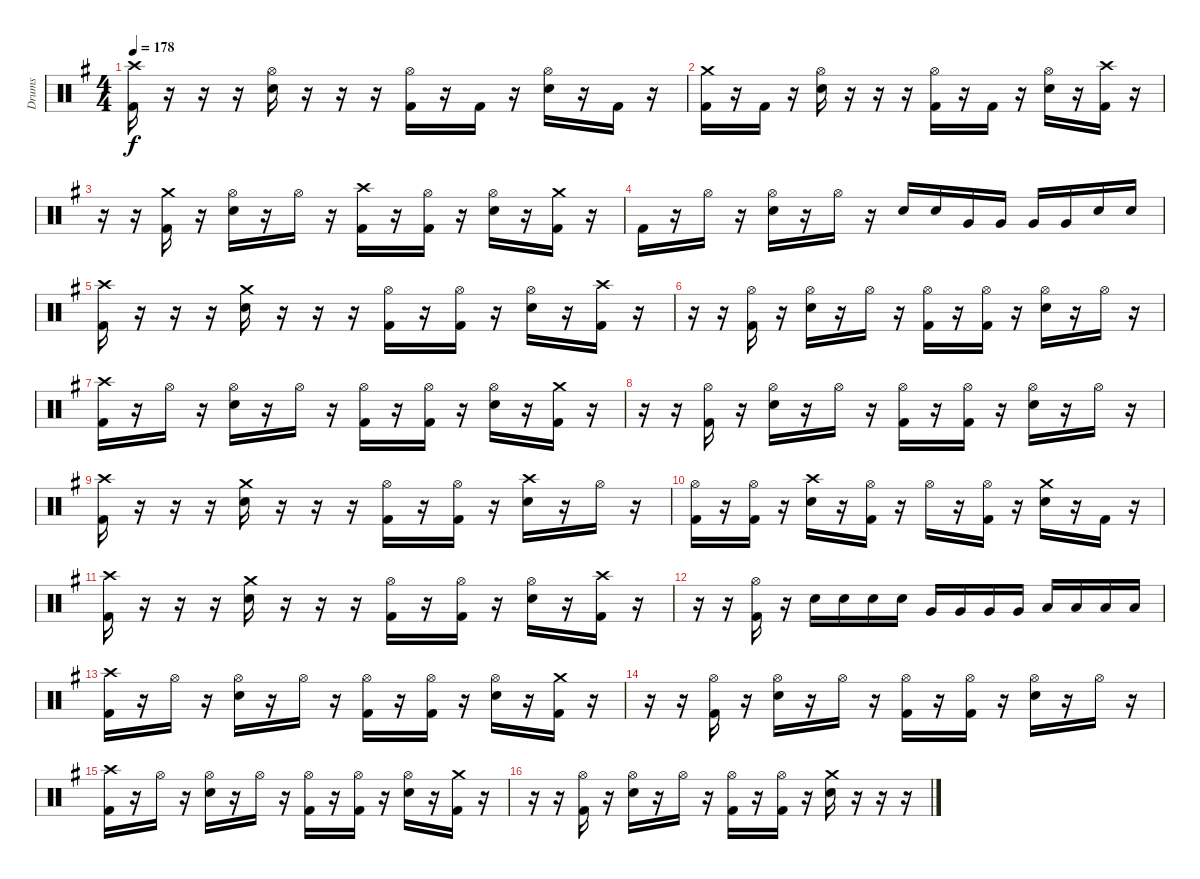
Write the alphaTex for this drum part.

\track ("Drums" "Drums") {instrument percussion}
\staff {score}
\articulation defaults
\ts (4 4)
\tempo 178
\clef neutral
\ks g
("Crash high (hit)" "Kick (hit) 2").16{dy f} r.16 r.16 r.16 ("Hi-Hat (open)" "Electric Snare (hit)").16 r.16 r.16 r.16 ("Hi-Hat (open)" "Kick (hit) 2").16 r.16 "Kick (hit) 2".16 r.16 ("Hi-Hat (open)" "Electric Snare (hit)").16 r.16 "Kick (hit) 2".16 r.16 |
("Crash medium (hit)" "Kick (hit) 2").16 r.16 "Kick (hit) 2".16 r.16 ("Hi-Hat (open)" "Electric Snare (hit)").16 r.16 r.16 r.16 ("Hi-Hat (open)" "Kick (hit) 2").16 r.16 "Kick (hit) 2".16 r.16 ("Hi-Hat (open)" "Electric Snare (hit)").16 r.16 ("Crash high (hit)" "Kick (hit) 2").16 r.16 |
r.16 r.16 ("Crash medium (hit)" "Kick (hit) 2").16 r.16 ("Hi-Hat (open)" "Electric Snare (hit)").16 r.16 "Hi-Hat (open)".16 r.16 ("Crash high (hit)" "Kick (hit) 2").16 r.16 ("Hi-Hat (open)" "Kick (hit) 2").16 r.16 ("Hi-Hat (open)" "Electric Snare (hit)").16 r.16 ("Crash medium (hit)" "Kick (hit) 2").16 r.16 |
"Kick (hit) 2".16 r.16 "Hi-Hat (open)".16 r.16 ("Hi-Hat (open)" "Electric Snare (hit)").16 r.16 "Hi-Hat (open)".16 r.16 "Electric Snare (hit)".16 "Electric Snare (hit)".16 "Very Low Tom (hit)".16 "Very Low Tom (hit)".16 "Very Low Tom (hit)".16 "Very Low Tom (hit)".16 "Electric Snare (hit)".16 "Electric Snare (hit)".16 |
("Crash high (hit)" "Kick (hit) 2").16 r.16 r.16 r.16 ("Crash medium (hit)" "Electric Snare (hit)").16 r.16 r.16 r.16 ("Hi-Hat (open)" "Kick (hit) 2").16 r.16 ("Hi-Hat (open)" "Kick (hit) 2").16 r.16 ("Hi-Hat (open)" "Electric Snare (hit)").16 r.16 ("Crash high (hit)" "Kick (hit) 2").16 r.16 |
r.16 r.16 ("Hi-Hat (open)" "Kick (hit) 2").16 r.16 ("Hi-Hat (open)" "Electric Snare (hit)").16 r.16 "Hi-Hat (open)".16 r.16 ("Hi-Hat (open)" "Kick (hit) 2").16 r.16 ("Hi-Hat (open)" "Kick (hit) 2").16 r.16 ("Hi-Hat (open)" "Electric Snare (hit)").16 r.16 "Hi-Hat (open)".16 r.16 |
("Crash high (hit)" "Kick (hit) 2").16 r.16 "Hi-Hat (open)".16 r.16 ("Hi-Hat (open)" "Electric Snare (hit)").16 r.16 "Hi-Hat (open)".16 r.16 ("Hi-Hat (open)" "Kick (hit) 2").16 r.16 ("Hi-Hat (open)" "Kick (hit) 2").16 r.16 ("Hi-Hat (open)" "Electric Snare (hit)").16 r.16 ("Crash medium (hit)" "Kick (hit) 2").16 r.16 |
r.16 r.16 ("Hi-Hat (open)" "Kick (hit) 2").16 r.16 ("Hi-Hat (open)" "Electric Snare (hit)").16 r.16 "Hi-Hat (open)".16 r.16 ("Hi-Hat (open)" "Kick (hit) 2").16 r.16 ("Hi-Hat (open)" "Kick (hit) 2").16 r.16 ("Hi-Hat (open)" "Electric Snare (hit)").16 r.16 "Hi-Hat (open)".16 r.16 |
("Crash high (hit)" "Kick (hit) 2").16 r.16 r.16 r.16 ("Crash medium (hit)" "Electric Snare (hit)").16 r.16 r.16 r.16 ("Hi-Hat (open)" "Kick (hit) 2").16 r.16 ("Hi-Hat (open)" "Kick (hit) 2").16 r.16 ("Crash high (hit)" "Electric Snare (hit)").16 r.16 "Hi-Hat (open)".16 r.16 |
("Hi-Hat (open)" "Kick (hit) 2").16 r.16 ("Hi-Hat (open)" "Kick (hit) 2").16 r.16 ("Crash high (hit)" "Electric Snare (hit)").16 r.16 ("Hi-Hat (open)" "Kick (hit) 2").16 r.16 "Hi-Hat (open)".16 r.16 ("Hi-Hat (open)" "Kick (hit) 2").16 r.16 ("Crash medium (hit)" "Electric Snare (hit)").16 r.16 "Kick (hit) 2".16 r.16 |
("Crash high (hit)" "Kick (hit) 2").16 r.16 r.16 r.16 ("Crash medium (hit)" "Electric Snare (hit)").16 r.16 r.16 r.16 ("Hi-Hat (open)" "Kick (hit) 2").16 r.16 ("Hi-Hat (open)" "Kick (hit) 2").16 r.16 ("Hi-Hat (open)" "Electric Snare (hit)").16 r.16 ("Crash high (hit)" "Kick (hit) 2").16 r.16 |
r.16 r.16 ("Hi-Hat (open)" "Kick (hit) 2").16 r.16 "Electric Snare (hit)".16 "Electric Snare (hit)".16 "Electric Snare (hit)".16 "Electric Snare (hit)".16 "Very Low Tom (hit)".16 "Very Low Tom (hit)".16 "Very Low Tom (hit)".16 "Very Low Tom (hit)".16 "Low Floor Tom (hit)".16 "Low Floor Tom (hit)".16 "Low Floor Tom (hit)".16 "Low Floor Tom (hit)".16 |
("Crash high (hit)" "Kick (hit) 2").16 r.16 "Hi-Hat (open)".16 r.16 ("Hi-Hat (open)" "Electric Snare (hit)").16 r.16 "Hi-Hat (open)".16 r.16 ("Hi-Hat (open)" "Kick (hit) 2").16 r.16 ("Hi-Hat (open)" "Kick (hit) 2").16 r.16 ("Hi-Hat (open)" "Electric Snare (hit)").16 r.16 ("Crash medium (hit)" "Kick (hit) 2").16 r.16 |
r.16 r.16 ("Hi-Hat (open)" "Kick (hit) 2").16 r.16 ("Hi-Hat (open)" "Electric Snare (hit)").16 r.16 "Hi-Hat (open)".16 r.16 ("Hi-Hat (open)" "Kick (hit) 2").16 r.16 ("Hi-Hat (open)" "Kick (hit) 2").16 r.16 ("Hi-Hat (open)" "Electric Snare (hit)").16 r.16 "Hi-Hat (open)".16 r.16 |
("Crash high (hit)" "Kick (hit) 2").16 r.16 "Hi-Hat (open)".16 r.16 ("Hi-Hat (open)" "Electric Snare (hit)").16 r.16 "Hi-Hat (open)".16 r.16 ("Hi-Hat (open)" "Kick (hit) 2").16 r.16 ("Hi-Hat (open)" "Kick (hit) 2").16 r.16 ("Hi-Hat (open)" "Electric Snare (hit)").16 r.16 ("Crash medium (hit)" "Kick (hit) 2").16 r.16 |
r.16 r.16 ("Hi-Hat (open)" "Kick (hit) 2").16 r.16 ("Hi-Hat (open)" "Electric Snare (hit)").16 r.16 "Hi-Hat (open)".16 r.16 ("Hi-Hat (open)" "Kick (hit) 2").16 r.16 ("Hi-Hat (open)" "Kick (hit) 2").16 r.16 ("Crash medium (hit)" "Electric Snare (hit)").16 r.16 r.16 r.16
